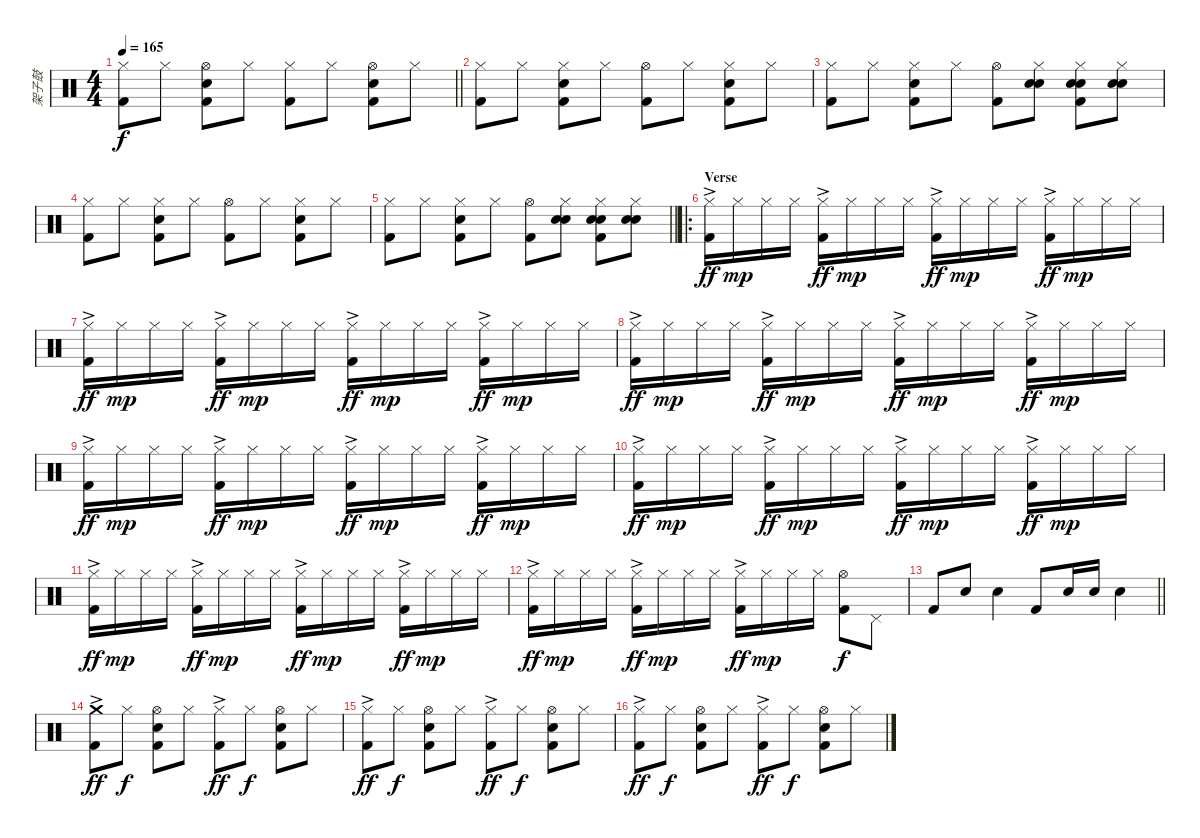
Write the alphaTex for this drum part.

\track ("架子鼓" "架子鼓") {instrument percussion}
\staff {score}
\articulation defaults
\ts (4 4)
\tempo 165
\clef neutral
\barLineRight lightlight
\ks c
("Hi-Hat (closed)" "Kick (hit) 2").8{dy f} "Hi-Hat (closed)".8 ("Hi-Hat (open)" "Electric Snare (hit)" "Kick (hit) 2").8 "Hi-Hat (closed)".8 ("Hi-Hat (closed)" "Kick (hit) 2").8 "Hi-Hat (closed)".8 ("Hi-Hat (open)" "Electric Snare (hit)" "Kick (hit) 2").8 "Hi-Hat (closed)".8 |
("Hi-Hat (closed)" "Kick (hit) 2").8 "Hi-Hat (closed)".8 ("Hi-Hat (closed)" "Hand Clap (hit)" "Kick (hit) 2").8 "Hi-Hat (closed)".8 ("Hi-Hat (open)" "Kick (hit) 2").8 "Hi-Hat (closed)".8 ("Hi-Hat (closed)" "Hand Clap (hit)" "Kick (hit) 2").8 "Hi-Hat (closed)".8 |
("Hi-Hat (closed)" "Kick (hit) 2").8 "Hi-Hat (closed)".8 ("Hi-Hat (closed)" "Hand Clap (hit)" "Kick (hit) 2").8 "Hi-Hat (closed)".8 ("Hi-Hat (open)" "Kick (hit) 2").8 ("Hi-Hat (closed)" "Electric Snare (hit)" "Hand Clap (hit)").8 ("Hi-Hat (closed)" "Electric Snare (hit)" "Hand Clap (hit)" "Kick (hit) 2").8 ("Hi-Hat (closed)" "Electric Snare (hit)" "Hand Clap (hit)").8 |
("Hi-Hat (closed)" "Kick (hit) 2").8 "Hi-Hat (closed)".8 ("Hi-Hat (closed)" "Hand Clap (hit)" "Kick (hit) 2").8 "Hi-Hat (closed)".8 ("Hi-Hat (open)" "Kick (hit) 2").8 "Hi-Hat (closed)".8 ("Hi-Hat (closed)" "Hand Clap (hit)" "Kick (hit) 2").8 "Hi-Hat (closed)".8 |
\barLineRight lightlight
("Hi-Hat (closed)" "Kick (hit) 2").8 "Hi-Hat (closed)".8 ("Hi-Hat (closed)" "Hand Clap (hit)" "Kick (hit) 2").8 "Hi-Hat (closed)".8 ("Hi-Hat (open)" "Kick (hit) 2").8 ("Hi-Hat (closed)" "Electric Snare (hit)" "Hand Clap (hit)").8 ("Hi-Hat (closed)" "Electric Snare (hit)" "Hand Clap (hit)" "Kick (hit) 2").8 ("Hi-Hat (closed)" "Electric Snare (hit)" "Hand Clap (hit)").8 |
\ro
\section ("" "Verse")
("Hi-Hat (closed)"{ac} "Kick (hit) 2").16{dy ff} "Hi-Hat (closed)".16{dy mp} "Hi-Hat (closed)".16 "Hi-Hat (closed)".16 ("Hi-Hat (closed)"{ac} "Kick (hit) 2").16{dy ff} "Hi-Hat (closed)".16{dy mp} "Hi-Hat (closed)".16 "Hi-Hat (closed)".16 ("Hi-Hat (closed)"{ac} "Kick (hit) 2").16{dy ff} "Hi-Hat (closed)".16{dy mp} "Hi-Hat (closed)".16 "Hi-Hat (closed)".16 ("Hi-Hat (closed)"{ac} "Kick (hit) 2").16{dy ff} "Hi-Hat (closed)".16{dy mp} "Hi-Hat (closed)".16 "Hi-Hat (closed)".16 |
("Hi-Hat (closed)"{ac} "Kick (hit) 2").16{dy ff} "Hi-Hat (closed)".16{dy mp} "Hi-Hat (closed)".16 "Hi-Hat (closed)".16 ("Hi-Hat (closed)"{ac} "Kick (hit) 2").16{dy ff} "Hi-Hat (closed)".16{dy mp} "Hi-Hat (closed)".16 "Hi-Hat (closed)".16 ("Hi-Hat (closed)"{ac} "Kick (hit) 2").16{dy ff} "Hi-Hat (closed)".16{dy mp} "Hi-Hat (closed)".16 "Hi-Hat (closed)".16 ("Hi-Hat (closed)"{ac} "Kick (hit) 2").16{dy ff} "Hi-Hat (closed)".16{dy mp} "Hi-Hat (closed)".16 "Hi-Hat (closed)".16 |
("Hi-Hat (closed)"{ac} "Kick (hit) 2").16{dy ff} "Hi-Hat (closed)".16{dy mp} "Hi-Hat (closed)".16 "Hi-Hat (closed)".16 ("Hi-Hat (closed)"{ac} "Kick (hit) 2").16{dy ff} "Hi-Hat (closed)".16{dy mp} "Hi-Hat (closed)".16 "Hi-Hat (closed)".16 ("Hi-Hat (closed)"{ac} "Kick (hit) 2").16{dy ff} "Hi-Hat (closed)".16{dy mp} "Hi-Hat (closed)".16 "Hi-Hat (closed)".16 ("Hi-Hat (closed)"{ac} "Kick (hit) 2").16{dy ff} "Hi-Hat (closed)".16{dy mp} "Hi-Hat (closed)".16 "Hi-Hat (closed)".16 |
("Hi-Hat (closed)"{ac} "Kick (hit) 2").16{dy ff} "Hi-Hat (closed)".16{dy mp} "Hi-Hat (closed)".16 "Hi-Hat (closed)".16 ("Hi-Hat (closed)"{ac} "Kick (hit) 2").16{dy ff} "Hi-Hat (closed)".16{dy mp} "Hi-Hat (closed)".16 "Hi-Hat (closed)".16 ("Hi-Hat (closed)"{ac} "Kick (hit) 2").16{dy ff} "Hi-Hat (closed)".16{dy mp} "Hi-Hat (closed)".16 "Hi-Hat (closed)".16 ("Hi-Hat (closed)"{ac} "Kick (hit) 2").16{dy ff} "Hi-Hat (closed)".16{dy mp} "Hi-Hat (closed)".16 "Hi-Hat (closed)".16 |
("Hi-Hat (closed)"{ac} "Kick (hit) 2").16{dy ff} "Hi-Hat (closed)".16{dy mp} "Hi-Hat (closed)".16 "Hi-Hat (closed)".16 ("Hi-Hat (closed)"{ac} "Kick (hit) 2").16{dy ff} "Hi-Hat (closed)".16{dy mp} "Hi-Hat (closed)".16 "Hi-Hat (closed)".16 ("Hi-Hat (closed)"{ac} "Kick (hit) 2").16{dy ff} "Hi-Hat (closed)".16{dy mp} "Hi-Hat (closed)".16 "Hi-Hat (closed)".16 ("Hi-Hat (closed)"{ac} "Kick (hit) 2").16{dy ff} "Hi-Hat (closed)".16{dy mp} "Hi-Hat (closed)".16 "Hi-Hat (closed)".16 |
("Hi-Hat (closed)"{ac} "Kick (hit) 2").16{dy ff} "Hi-Hat (closed)".16{dy mp} "Hi-Hat (closed)".16 "Hi-Hat (closed)".16 ("Hi-Hat (closed)"{ac} "Kick (hit) 2").16{dy ff} "Hi-Hat (closed)".16{dy mp} "Hi-Hat (closed)".16 "Hi-Hat (closed)".16 ("Hi-Hat (closed)"{ac} "Kick (hit) 2").16{dy ff} "Hi-Hat (closed)".16{dy mp} "Hi-Hat (closed)".16 "Hi-Hat (closed)".16 ("Hi-Hat (closed)"{ac} "Kick (hit) 2").16{dy ff} "Hi-Hat (closed)".16{dy mp} "Hi-Hat (closed)".16 "Hi-Hat (closed)".16 |
("Hi-Hat (closed)"{ac} "Kick (hit) 2").16{dy ff} "Hi-Hat (closed)".16{dy mp} "Hi-Hat (closed)".16 "Hi-Hat (closed)".16 ("Hi-Hat (closed)"{ac} "Kick (hit) 2").16{dy ff} "Hi-Hat (closed)".16{dy mp} "Hi-Hat (closed)".16 "Hi-Hat (closed)".16 ("Hi-Hat (closed)"{ac} "Kick (hit) 2").16{dy ff} "Hi-Hat (closed)".16{dy mp} "Hi-Hat (closed)".16 "Hi-Hat (closed)".16 ("Hi-Hat (open)" "Kick (hit) 2").8{dy f} "Pedal Hi-Hat (hit)".8 |
\barLineRight lightlight "Kick (hit) 2".8 "Electric Snare (hit)".8 "Electric Snare (hit)".4 "Kick (hit) 2".8 "Electric Snare (hit)".16 "Electric Snare (hit)".16 "Electric Snare (hit)".4
|
("Crash medium (hit)"{ac} "Kick (hit) 2").8{dy ff} "Hi-Hat (closed)".8{dy f} ("Hi-Hat (open)" "Electric Snare (hit)" "Kick (hit) 2").8 "Hi-Hat (closed)".8 ("Hi-Hat (closed)"{ac} "Kick (hit) 2").8{dy ff} "Hi-Hat (closed)".8{dy f} ("Hi-Hat (open)" "Electric Snare (hit)" "Kick (hit) 2").8 "Hi-Hat (closed)".8 |
("Hi-Hat (closed)"{ac} "Kick (hit) 2").8{dy ff} "Hi-Hat (closed)".8{dy f} ("Hi-Hat (open)" "Electric Snare (hit)" "Kick (hit) 2").8 "Hi-Hat (closed)".8 ("Hi-Hat (closed)"{ac} "Kick (hit) 2").8{dy ff} "Hi-Hat (closed)".8{dy f} ("Hi-Hat (open)" "Electric Snare (hit)" "Kick (hit) 2").8 "Hi-Hat (closed)".8 |
("Hi-Hat (closed)"{ac} "Kick (hit) 2").8{dy ff} "Hi-Hat (closed)".8{dy f} ("Hi-Hat (open)" "Electric Snare (hit)" "Kick (hit) 2").8 "Hi-Hat (closed)".8 ("Hi-Hat (closed)"{ac} "Kick (hit) 2").8{dy ff} "Hi-Hat (closed)".8{dy f} ("Hi-Hat (open)" "Electric Snare (hit)" "Kick (hit) 2").8 "Hi-Hat (closed)".8
